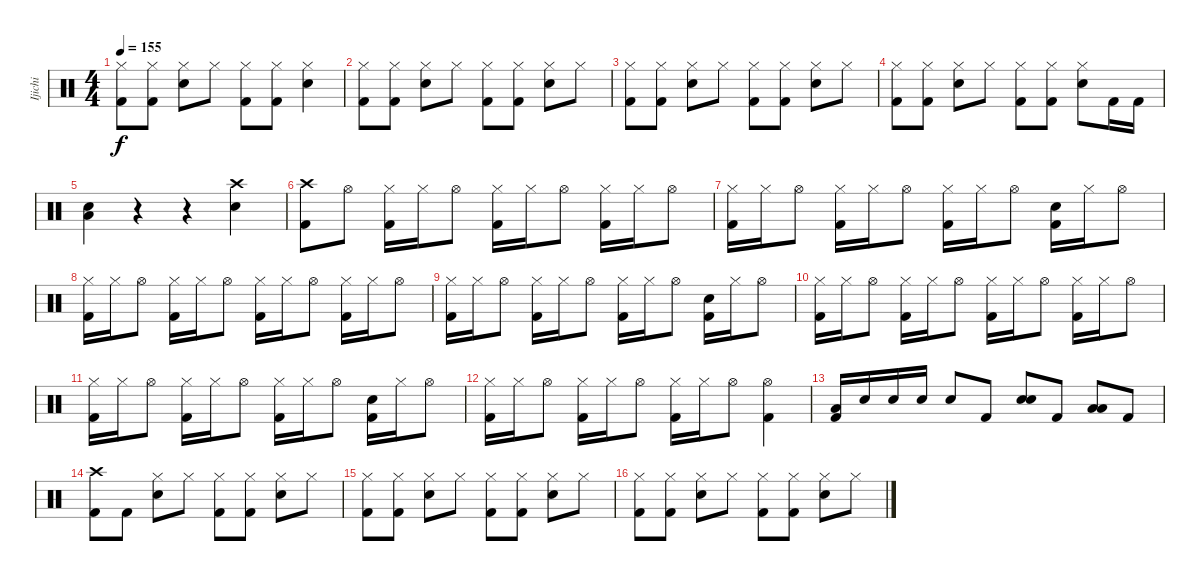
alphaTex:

\track ("Ijichi" "Ijichi") {instrument percussion}
\staff {score}
\articulation defaults
\ts (4 4)
\tempo 155
\clef neutral
\ks c
("Hi-Hat (closed)" "Kick (hit) 2").8{dy f} ("Hi-Hat (closed)" "Kick (hit) 2").8 ("Hi-Hat (closed)" "Snare (hit) 2").8 "Hi-Hat (closed)".8 ("Hi-Hat (closed)" "Kick (hit) 2").8 ("Hi-Hat (closed)" "Kick (hit) 2").8 ("Hi-Hat (closed)" "Snare (hit) 2").4 |
("Hi-Hat (closed)" "Kick (hit) 2").8 ("Hi-Hat (closed)" "Kick (hit) 2").8 ("Hi-Hat (closed)" "Snare (hit) 2").8 "Hi-Hat (closed)".8 ("Hi-Hat (closed)" "Kick (hit) 2").8 ("Hi-Hat (closed)" "Kick (hit) 2").8 ("Hi-Hat (closed)" "Snare (hit) 2").8 "Hi-Hat (closed)".8 |
("Hi-Hat (closed)" "Kick (hit) 2").8 ("Hi-Hat (closed)" "Kick (hit) 2").8 ("Hi-Hat (closed)" "Snare (hit) 2").8 "Hi-Hat (closed)".8 ("Hi-Hat (closed)" "Kick (hit) 2").8 ("Hi-Hat (closed)" "Kick (hit) 2").8 ("Hi-Hat (closed)" "Snare (hit) 2").8 "Hi-Hat (closed)".8 |
("Hi-Hat (closed)" "Kick (hit) 2").8 ("Hi-Hat (closed)" "Kick (hit) 2").8 ("Hi-Hat (closed)" "Snare (hit) 2").8 "Hi-Hat (closed)".8 ("Hi-Hat (closed)" "Kick (hit) 2").8 ("Hi-Hat (closed)" "Kick (hit) 2").8 ("Hi-Hat (closed)" "Snare (hit) 2").8 "Kick (hit) 2".16 "Kick (hit) 2".16 |
("Snare (hit) 2" "Low Floor Tom (hit)").4 r.4 r.4 ("Crash high (hit)" "Snare (hit) 2").4 |
("Crash high (hit)" "Kick (hit) 2").8 "Hi-Hat (open)".8 ("Hi-Hat (closed)" "Kick (hit) 2").16 "Hi-Hat (closed)".16 "Hi-Hat (open)".8 ("Hi-Hat (closed)" "Kick (hit) 2").16 "Hi-Hat (closed)".16 "Hi-Hat (open)".8 ("Hi-Hat (closed)" "Kick (hit) 2").16 "Hi-Hat (closed)".16 "Hi-Hat (open)".8 |
("Hi-Hat (closed)" "Kick (hit) 2").16 "Hi-Hat (closed)".16 "Hi-Hat (open)".8 ("Hi-Hat (closed)" "Kick (hit) 2").16 "Hi-Hat (closed)".16 "Hi-Hat (open)".8 ("Hi-Hat (closed)" "Kick (hit) 2").16 "Hi-Hat (closed)".16 "Hi-Hat (open)".8 ("Snare (hit) 2" "Kick (hit) 2").16 "Hi-Hat (closed)".16 "Hi-Hat (open)".8 |
("Hi-Hat (closed)" "Kick (hit) 2").16 "Hi-Hat (closed)".16 "Hi-Hat (open)".8 ("Hi-Hat (closed)" "Kick (hit) 2").16 "Hi-Hat (closed)".16 "Hi-Hat (open)".8 ("Hi-Hat (closed)" "Kick (hit) 2").16 "Hi-Hat (closed)".16 "Hi-Hat (open)".8 ("Hi-Hat (closed)" "Kick (hit) 2").16 "Hi-Hat (closed)".16 "Hi-Hat (open)".8 |
("Hi-Hat (closed)" "Kick (hit) 2").16 "Hi-Hat (closed)".16 "Hi-Hat (open)".8 ("Hi-Hat (closed)" "Kick (hit) 2").16 "Hi-Hat (closed)".16 "Hi-Hat (open)".8 ("Hi-Hat (closed)" "Kick (hit) 2").16 "Hi-Hat (closed)".16 "Hi-Hat (open)".8 ("Snare (hit) 2" "Kick (hit) 2").16 "Hi-Hat (closed)".16 "Hi-Hat (open)".8 |
("Hi-Hat (closed)" "Kick (hit) 2").16 "Hi-Hat (closed)".16 "Hi-Hat (open)".8 ("Hi-Hat (closed)" "Kick (hit) 2").16 "Hi-Hat (closed)".16 "Hi-Hat (open)".8 ("Hi-Hat (closed)" "Kick (hit) 2").16 "Hi-Hat (closed)".16 "Hi-Hat (open)".8 ("Hi-Hat (closed)" "Kick (hit) 2").16 "Hi-Hat (closed)".16 "Hi-Hat (open)".8 |
("Hi-Hat (closed)" "Kick (hit) 2").16 "Hi-Hat (closed)".16 "Hi-Hat (open)".8 ("Hi-Hat (closed)" "Kick (hit) 2").16 "Hi-Hat (closed)".16 "Hi-Hat (open)".8 ("Hi-Hat (closed)" "Kick (hit) 2").16 "Hi-Hat (closed)".16 "Hi-Hat (open)".8 ("Snare (hit) 2" "Kick (hit) 2").16 "Hi-Hat (closed)".16 "Hi-Hat (open)".8 |
("Hi-Hat (closed)" "Kick (hit) 2").16 "Hi-Hat (closed)".16 "Hi-Hat (open)".8 ("Hi-Hat (closed)" "Kick (hit) 2").16 "Hi-Hat (closed)".16 "Hi-Hat (open)".8 ("Hi-Hat (closed)" "Kick (hit) 2").16 "Hi-Hat (closed)".16 "Hi-Hat (open)".8 ("Hi-Hat (open)" "Kick (hit) 2").4 |
("Low Tom (hit)" "Kick (hit) 2").16 "Snare (hit) 2".16 "Snare (hit) 2".16 "Snare (hit) 2".16 "Snare (hit) 2".8 "Kick (hit) 2".8 ("Snare (hit) 2" "Snare (hit) 2").8 "Kick (hit) 2".8 ("Low Tom (hit)" "Low Tom (hit)").8 "Kick (hit) 2".8 |
("Crash high (hit)" "Kick (hit) 2").8 "Kick (hit) 2".8 ("Hi-Hat (closed)" "Snare (hit) 2").8 "Hi-Hat (closed)".8 ("Hi-Hat (closed)" "Kick (hit) 2").8 ("Hi-Hat (closed)" "Kick (hit) 2").8 ("Hi-Hat (closed)" "Snare (hit) 2").8 "Hi-Hat (closed)".8 |
("Hi-Hat (closed)" "Kick (hit) 2").8 ("Hi-Hat (closed)" "Kick (hit) 2").8 ("Hi-Hat (closed)" "Snare (hit) 2").8 "Hi-Hat (closed)".8 ("Hi-Hat (closed)" "Kick (hit) 2").8 ("Hi-Hat (closed)" "Kick (hit) 2").8 ("Hi-Hat (closed)" "Snare (hit) 2").8 "Hi-Hat (closed)".8 |
("Hi-Hat (closed)" "Kick (hit) 2").8 ("Hi-Hat (closed)" "Kick (hit) 2").8 ("Hi-Hat (closed)" "Snare (hit) 2").8 "Hi-Hat (closed)".8 ("Hi-Hat (closed)" "Kick (hit) 2").8 ("Hi-Hat (closed)" "Kick (hit) 2").8 ("Hi-Hat (closed)" "Snare (hit) 2").8 "Hi-Hat (closed)".8
